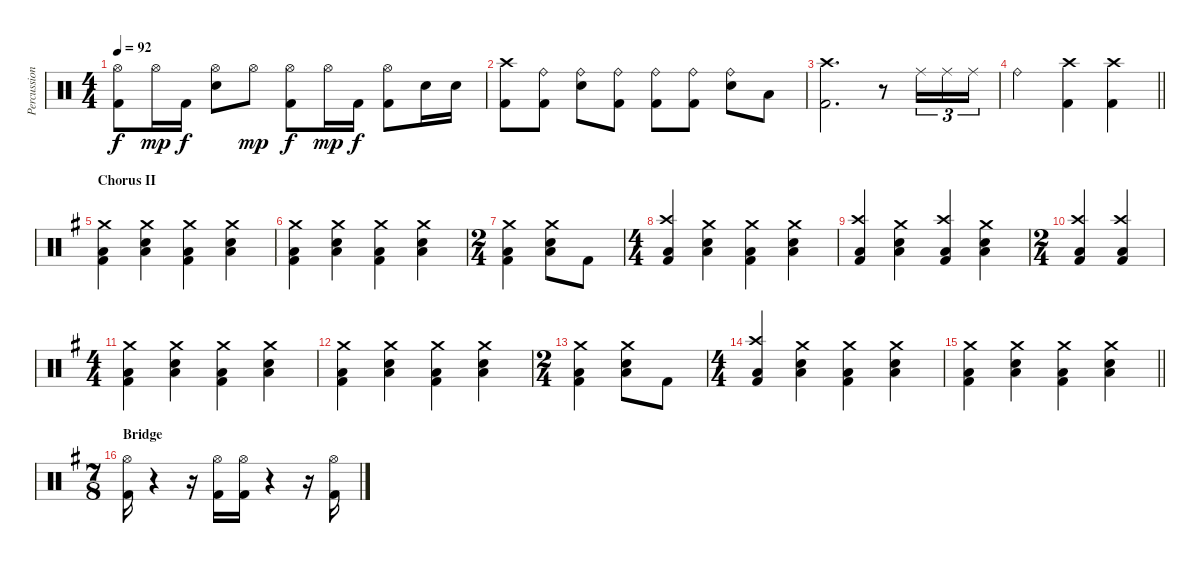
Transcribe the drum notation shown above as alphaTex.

\track ("Percussion" "Percussion") {instrument percussion}
\staff {score}
\articulation defaults
\ts (4 4)
\tempo 92
\clef neutral
\ks aminor
("Hi-Hat (open)" "Kick (hit) 2").8{dy f} "Hi-Hat (open)".16{dy mp} "Kick (hit) 2".16{dy f} ("Hi-Hat (open)" "Electric Snare (hit)").8 "Hi-Hat (open)".8{dy mp} ("Hi-Hat (open)" "Kick (hit) 2").8{dy f} "Hi-Hat (open)".16{dy mp} "Kick (hit) 2".16{dy f} ("Hi-Hat (open)" "Kick (hit) 2").8 "Electric Snare (hit)".16 "Electric Snare (hit)".16 |
("Crash high (hit)" "Kick (hit) 2").8 ("Ride (bell)" "Kick (hit) 2").8 ("Ride (bell)" "Electric Snare (hit)").8 ("Ride (bell)" "Kick (hit) 2").8 ("Ride (bell)" "Kick (hit) 2").8 ("Ride (bell)" "Kick (hit) 2").8 ("Ride (bell)" "Electric Snare (hit)").8 "Low Floor Tom (hit)".8 |
("Crash high (hit)" "Kick (hit) 2").2{d} r.8 "Ride (middle)".16{tu (3 2)} "Ride (middle)".16{tu (3 2)} "Ride (middle)".16{tu (3 2)} |
\barLineRight lightlight "Ride (bell)".2
("Crash high (hit)" "Kick (hit) 2").4 ("Crash high (hit)" "Kick (hit) 2").4 |
\section ("" "Chorus II")
\ks eminor
("Crash medium (hit)" "Low Floor Tom (hit)" "Kick (hit) 2").4 ("Crash medium (hit)" "Electric Snare (hit)" "Low Floor Tom (hit)").4 ("Crash medium (hit)" "Low Floor Tom (hit)" "Kick (hit) 2").4 ("Crash medium (hit)" "Electric Snare (hit)" "Low Floor Tom (hit)").4 |
("Crash medium (hit)" "Low Floor Tom (hit)" "Kick (hit) 2").4 ("Crash medium (hit)" "Electric Snare (hit)" "Low Floor Tom (hit)").4 ("Crash medium (hit)" "Low Floor Tom (hit)" "Kick (hit) 2").4 ("Crash medium (hit)" "Electric Snare (hit)" "Low Floor Tom (hit)").4 |
\ts (2 4)
("Crash medium (hit)" "Low Floor Tom (hit)" "Kick (hit) 2").4 ("Crash medium (hit)" "Electric Snare (hit)" "Low Floor Tom (hit)").8 "Kick (hit) 2".8 |
\ts (4 4)
("Crash high (hit)" "Low Floor Tom (hit)" "Kick (hit) 2").4 ("Crash medium (hit)" "Electric Snare (hit)" "Low Floor Tom (hit)").4 ("Crash medium (hit)" "Low Floor Tom (hit)" "Kick (hit) 2").4 ("Crash medium (hit)" "Electric Snare (hit)" "Low Floor Tom (hit)").4 |
("Crash high (hit)" "Low Floor Tom (hit)" "Kick (hit) 2").4 ("Crash medium (hit)" "Electric Snare (hit)" "Low Floor Tom (hit)").4 ("Crash high (hit)" "Low Floor Tom (hit)" "Kick (hit) 2").4 ("Crash medium (hit)" "Electric Snare (hit)" "Low Floor Tom (hit)").4 |
\ts (2 4)
("Crash high (hit)" "Low Floor Tom (hit)" "Kick (hit) 2").4 ("Crash high (hit)" "Low Floor Tom (hit)" "Kick (hit) 2").4 |
\ts (4 4)
("Crash medium (hit)" "Low Floor Tom (hit)" "Kick (hit) 2").4 ("Crash medium (hit)" "Electric Snare (hit)" "Low Floor Tom (hit)").4 ("Crash medium (hit)" "Low Floor Tom (hit)" "Kick (hit) 2").4 ("Crash medium (hit)" "Electric Snare (hit)" "Low Floor Tom (hit)").4 |
("Crash medium (hit)" "Low Floor Tom (hit)" "Kick (hit) 2").4 ("Crash medium (hit)" "Electric Snare (hit)" "Low Floor Tom (hit)").4 ("Crash medium (hit)" "Low Floor Tom (hit)" "Kick (hit) 2").4 ("Crash medium (hit)" "Electric Snare (hit)" "Low Floor Tom (hit)").4 |
\ts (2 4)
("Crash medium (hit)" "Low Floor Tom (hit)" "Kick (hit) 2").4 ("Crash medium (hit)" "Electric Snare (hit)" "Low Floor Tom (hit)").8 "Kick (hit) 2".8 |
\ts (4 4)
("Crash high (hit)" "Low Floor Tom (hit)" "Kick (hit) 2").4 ("Crash medium (hit)" "Electric Snare (hit)" "Low Floor Tom (hit)").4 ("Crash medium (hit)" "Low Floor Tom (hit)" "Kick (hit) 2").4 ("Crash medium (hit)" "Electric Snare (hit)" "Low Floor Tom (hit)").4 |
\barLineRight lightlight
("Crash medium (hit)" "Low Floor Tom (hit)" "Kick (hit) 2").4 ("Crash medium (hit)" "Electric Snare (hit)" "Low Floor Tom (hit)").4 ("Crash medium (hit)" "Low Floor Tom (hit)" "Kick (hit) 2").4 ("Crash medium (hit)" "Electric Snare (hit)" "Low Floor Tom (hit)").4 |
\ts (7 8)
\section ("" "Bridge")
("Hi-Hat (open)" "Kick (hit) 2").16 r.4 r.16 ("Hi-Hat (open)" "Kick (hit) 2").16 ("Hi-Hat (open)" "Kick (hit) 2").16 r.4 r.16 ("Hi-Hat (open)" "Kick (hit) 2").16
